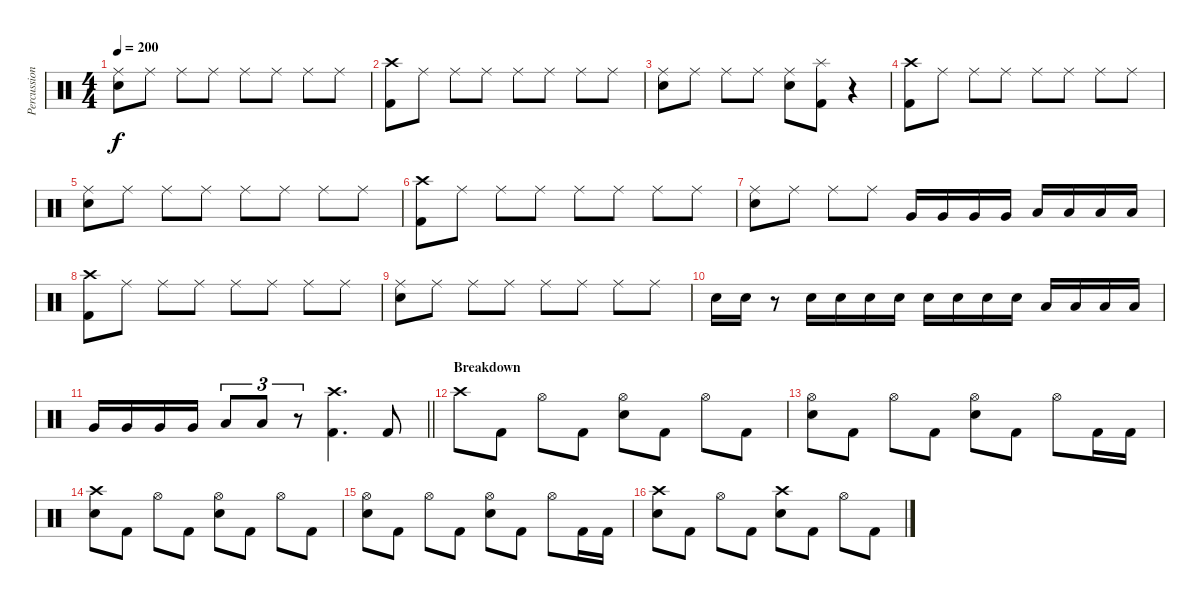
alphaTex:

\track ("Percussion" "Percussion") {instrument percussion}
\staff
\articulation defaults
\ts (4 4)
\tempo 200
\clef neutral
\ks c
("Ride (middle)" "Electric Snare (hit)").8{dy f} "Ride (middle)".8 "Ride (middle)".8 "Ride (middle)".8 "Ride (middle)".8 "Ride (middle)".8 "Ride (middle)".8 "Ride (middle)".8 |
("Crash high (hit)" "Kick (hit) 2").8 "Ride (middle)".8 "Ride (middle)".8 "Ride (middle)".8 "Ride (middle)".8 "Ride (middle)".8 "Ride (middle)".8 "Ride (middle)".8 |
("Ride (middle)" "Electric Snare (hit)").8 "Ride (middle)".8 "Ride (middle)".8 "Ride (middle)".8 ("Ride (middle)" "Electric Snare (hit)").8 ("Splash (hit)" "Kick (hit) 2").8 r.4 |
("Crash high (hit)" "Kick (hit) 2").8 "Ride (middle)".8 "Ride (middle)".8 "Ride (middle)".8 "Ride (middle)".8 "Ride (middle)".8 "Ride (middle)".8 "Ride (middle)".8 |
("Ride (middle)" "Electric Snare (hit)").8 "Ride (middle)".8 "Ride (middle)".8 "Ride (middle)".8 "Ride (middle)".8 "Ride (middle)".8 "Ride (middle)".8 "Ride (middle)".8 |
("Crash high (hit)" "Kick (hit) 2").8 "Ride (middle)".8 "Ride (middle)".8 "Ride (middle)".8 "Ride (middle)".8 "Ride (middle)".8 "Ride (middle)".8 "Ride (middle)".8 |
("Ride (middle)" "Electric Snare (hit)").8 "Ride (middle)".8 "Ride (middle)".8 "Ride (middle)".8 "Very Low Tom (hit)".16 "Very Low Tom (hit)".16 "Very Low Tom (hit)".16 "Very Low Tom (hit)".16 "Low Floor Tom (hit)".16 "Low Floor Tom (hit)".16 "Low Floor Tom (hit)".16 "Low Floor Tom (hit)".16 |
("Crash high (hit)" "Kick (hit) 2").8 "Ride (middle)".8 "Ride (middle)".8 "Ride (middle)".8 "Ride (middle)".8 "Ride (middle)".8 "Ride (middle)".8 "Ride (middle)".8 |
("Ride (middle)" "Electric Snare (hit)").8 "Ride (middle)".8 "Ride (middle)".8 "Ride (middle)".8 "Ride (middle)".8 "Ride (middle)".8 "Ride (middle)".8 "Ride (middle)".8 |
"Electric Snare (hit)".16 "Electric Snare (hit)".16 r.8 "Electric Snare (hit)".16 "Electric Snare (hit)".16 "Electric Snare (hit)".16 "Electric Snare (hit)".16 "Electric Snare (hit)".16 "Electric Snare (hit)".16 "Electric Snare (hit)".16 "Electric Snare (hit)".16 "Low Tom (hit)".16 "Low Tom (hit)".16 "Low Tom (hit)".16 "Low Tom (hit)".16 |
\barLineRight lightlight "Very Low Tom (hit)".16 "Very Low Tom (hit)".16 "Very Low Tom (hit)".16 "Very Low Tom (hit)".16 "Low Floor Tom (hit)".8{tu (3 2)} "Low Floor Tom (hit)".8{tu (3 2)}
r.8{tu (3 2)} ("Crash high (hit)" "Kick (hit) 2").4{d} "Kick (hit) 2".8 |
\section ("" "Breakdown")
"Crash high (hit)".8 "Kick (hit) 2".8 "Hi-Hat (open)".8 "Kick (hit) 2".8 ("Hi-Hat (open)" "Electric Snare (hit)").8 "Kick (hit) 2".8 "Hi-Hat (open)".8 "Kick (hit) 2".8 |
("Hi-Hat (open)" "Electric Snare (hit)").8 "Kick (hit) 2".8 "Hi-Hat (open)".8 "Kick (hit) 2".8 ("Hi-Hat (open)" "Electric Snare (hit)").8 "Kick (hit) 2".8 "Hi-Hat (open)".8 "Kick (hit) 2".16 "Kick (hit) 2".16 |
("Crash high (hit)" "Electric Snare (hit)").8 "Kick (hit) 2".8 "Hi-Hat (open)".8 "Kick (hit) 2".8 ("Hi-Hat (open)" "Electric Snare (hit)").8 "Kick (hit) 2".8 "Hi-Hat (open)".8 "Kick (hit) 2".8 |
("Hi-Hat (open)" "Electric Snare (hit)").8 "Kick (hit) 2".8 "Hi-Hat (open)".8 "Kick (hit) 2".8 ("Hi-Hat (open)" "Electric Snare (hit)").8 "Kick (hit) 2".8 "Hi-Hat (open)".8 "Kick (hit) 2".16 "Kick (hit) 2".16 |
("Crash high (hit)" "Electric Snare (hit)").8 "Kick (hit) 2".8 "Hi-Hat (open)".8 "Kick (hit) 2".8 ("Crash high (hit)" "Electric Snare (hit)").8 "Kick (hit) 2".8 "Hi-Hat (open)".8 "Kick (hit) 2".8
